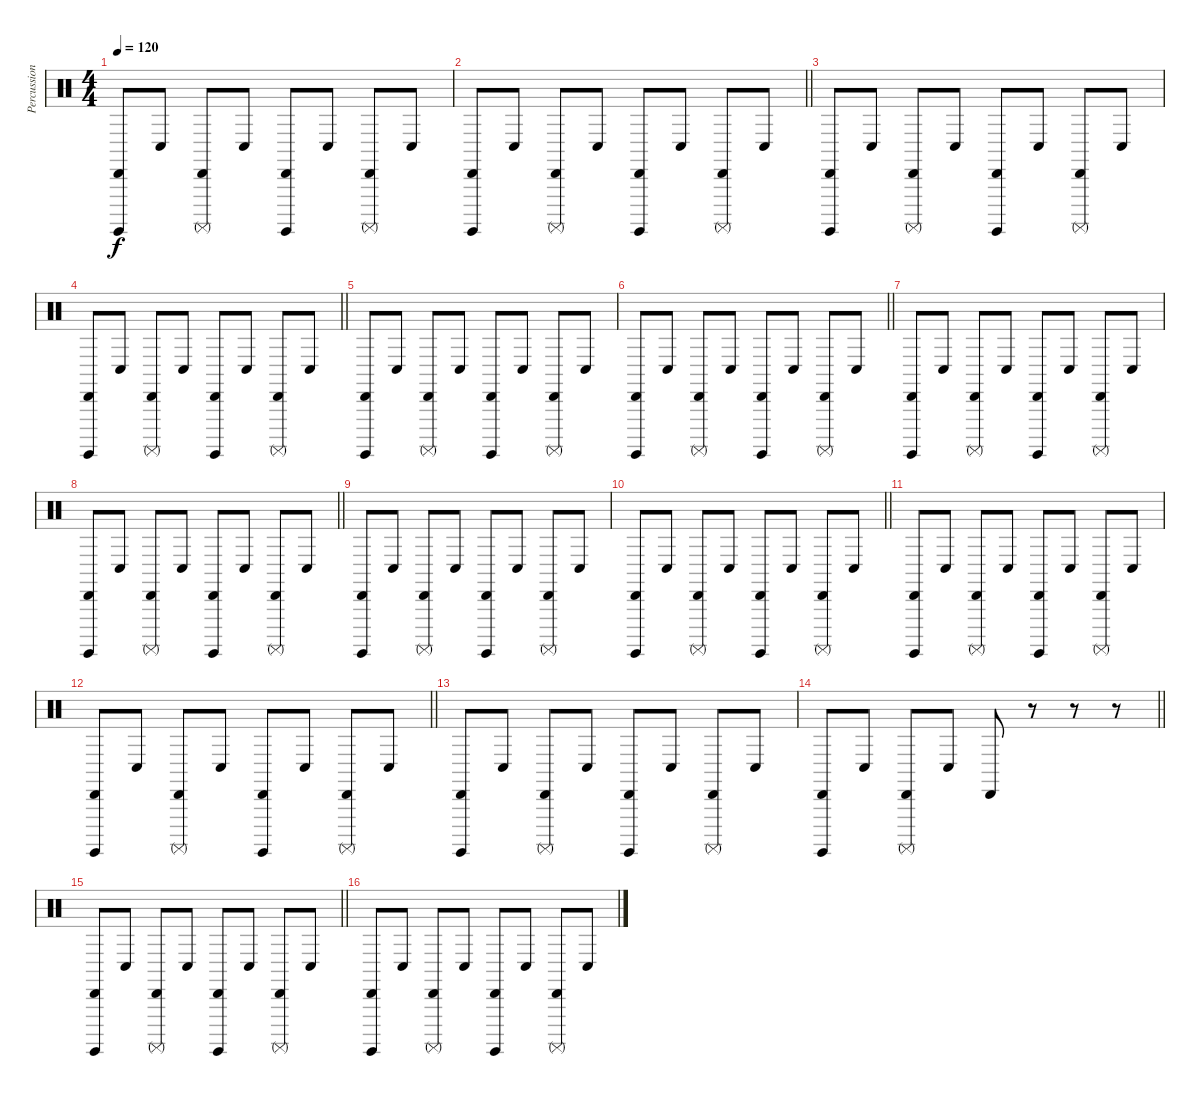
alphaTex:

\track ("Percussion" "Percussion") {instrument percussion}
\staff {score}
\articulation defaults
\ts (4 4)
\tempo 120
\clef neutral
\ks c
("Surdo (hit)" "Cabasa (hit)").8{dy f} "Conga low (hit)".8 ("Surdo (mute)" "Cabasa (hit)").8 "Conga low (hit)".8 ("Surdo (hit)" "Cabasa (hit)").8 "Conga low (hit)".8 ("Surdo (mute)" "Cabasa (hit)").8 "Conga low (hit)".8 |
\barLineRight lightlight
("Surdo (hit)" "Cabasa (hit)").8 "Conga low (hit)".8 ("Surdo (mute)" "Cabasa (hit)").8 "Conga low (hit)".8 ("Surdo (hit)" "Cabasa (hit)").8 "Conga low (hit)".8 ("Surdo (mute)" "Cabasa (hit)").8 "Conga low (hit)".8 |
("Surdo (hit)" "Cabasa (hit)").8 "Conga low (hit)".8 ("Surdo (mute)" "Cabasa (hit)").8 "Conga low (hit)".8 ("Surdo (hit)" "Cabasa (hit)").8 "Conga low (hit)".8 ("Surdo (mute)" "Cabasa (hit)").8 "Conga low (hit)".8 |
\barLineRight lightlight
("Surdo (hit)" "Cabasa (hit)").8 "Conga low (hit)".8 ("Surdo (mute)" "Cabasa (hit)").8 "Conga low (hit)".8 ("Surdo (hit)" "Cabasa (hit)").8 "Conga low (hit)".8 ("Surdo (mute)" "Cabasa (hit)").8 "Conga low (hit)".8 |
("Surdo (hit)" "Cabasa (hit)").8 "Conga low (hit)".8 ("Surdo (mute)" "Cabasa (hit)").8 "Conga low (hit)".8 ("Surdo (hit)" "Cabasa (hit)").8 "Conga low (hit)".8 ("Surdo (mute)" "Cabasa (hit)").8 "Conga low (hit)".8 |
\barLineRight lightlight
("Surdo (hit)" "Cabasa (hit)").8 "Conga low (hit)".8 ("Surdo (mute)" "Cabasa (hit)").8 "Conga low (hit)".8 ("Surdo (hit)" "Cabasa (hit)").8 "Conga low (hit)".8 ("Surdo (mute)" "Cabasa (hit)").8 "Conga low (hit)".8 |
("Surdo (hit)" "Cabasa (hit)").8 "Conga low (hit)".8 ("Surdo (mute)" "Cabasa (hit)").8 "Conga low (hit)".8 ("Surdo (hit)" "Cabasa (hit)").8 "Conga low (hit)".8 ("Surdo (mute)" "Cabasa (hit)").8 "Conga low (hit)".8 |
\barLineRight lightlight
("Surdo (hit)" "Cabasa (hit)").8 "Conga low (hit)".8 ("Surdo (mute)" "Cabasa (hit)").8 "Conga low (hit)".8 ("Surdo (hit)" "Cabasa (hit)").8 "Conga low (hit)".8 ("Surdo (mute)" "Cabasa (hit)").8 "Conga low (hit)".8 |
("Surdo (hit)" "Cabasa (hit)").8 "Conga low (hit)".8 ("Surdo (mute)" "Cabasa (hit)").8 "Conga low (hit)".8 ("Surdo (hit)" "Cabasa (hit)").8 "Conga low (hit)".8 ("Surdo (mute)" "Cabasa (hit)").8 "Conga low (hit)".8 |
\barLineRight lightlight
("Surdo (hit)" "Cabasa (hit)").8 "Conga low (hit)".8 ("Surdo (mute)" "Cabasa (hit)").8 "Conga low (hit)".8 ("Surdo (hit)" "Cabasa (hit)").8 "Conga low (hit)".8 ("Surdo (mute)" "Cabasa (hit)").8 "Conga low (hit)".8 |
("Surdo (hit)" "Cabasa (hit)").8 "Conga low (hit)".8 ("Surdo (mute)" "Cabasa (hit)").8 "Conga low (hit)".8 ("Surdo (hit)" "Cabasa (hit)").8 "Conga low (hit)".8 ("Surdo (mute)" "Cabasa (hit)").8 "Conga low (hit)".8 |
\barLineRight lightlight
("Surdo (hit)" "Cabasa (hit)").8 "Conga low (hit)".8 ("Surdo (mute)" "Cabasa (hit)").8 "Conga low (hit)".8 ("Surdo (hit)" "Cabasa (hit)").8 "Conga low (hit)".8 ("Surdo (mute)" "Cabasa (hit)").8 "Conga low (hit)".8 |
("Surdo (hit)" "Cabasa (hit)").8 "Conga low (hit)".8 ("Surdo (mute)" "Cabasa (hit)").8 "Conga low (hit)".8 ("Surdo (hit)" "Cabasa (hit)").8 "Conga low (hit)".8 ("Surdo (mute)" "Cabasa (hit)").8 "Conga low (hit)".8 |
\barLineRight lightlight
("Surdo (hit)" "Cabasa (hit)").8 "Conga low (hit)".8 ("Surdo (mute)" "Cabasa (hit)").8 "Conga low (hit)".8 "Cabasa (hit)".8 r.8 r.8 r.8 |
\barLineRight lightlight
("Surdo (hit)" "Cabasa (hit)").8 "Conga low (hit)".8 ("Surdo (mute)" "Cabasa (hit)").8 "Conga low (hit)".8 ("Surdo (hit)" "Cabasa (hit)").8 "Conga low (hit)".8 ("Surdo (mute)" "Cabasa (hit)").8 "Conga low (hit)".8 |
("Surdo (hit)" "Cabasa (hit)").8 "Conga low (hit)".8 ("Surdo (mute)" "Cabasa (hit)").8 "Conga low (hit)".8 ("Surdo (hit)" "Cabasa (hit)").8 "Conga low (hit)".8 ("Surdo (mute)" "Cabasa (hit)").8 "Conga low (hit)".8
